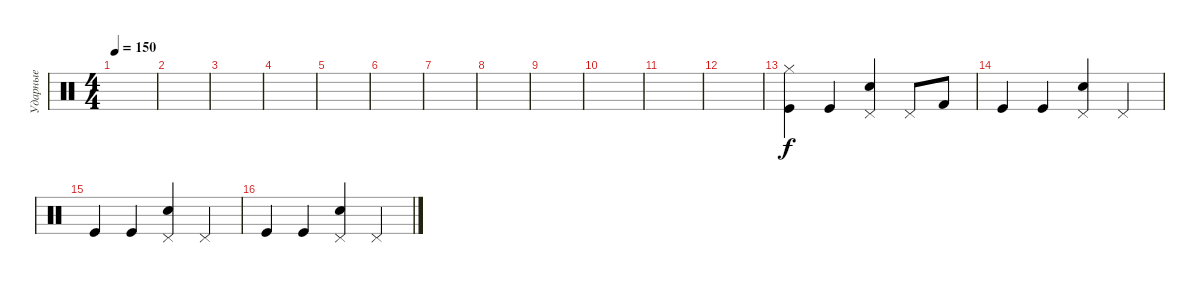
\track ("Ударные" "Ударные") {instrument percussion}
\staff {score}
\articulation defaults
\ts (4 4)
\tempo 150
\clef neutral
\ks c
|
|
|
|
|
|
|
|
|
|
|
|
("Kick (hit)" "Hi-Hat (closed)").4 "Kick (hit)".4 ("Electric Snare (hit)" "Pedal Hi-Hat (hit)").4 "Pedal Hi-Hat (hit)".8 "Kick (hit) 2".8 |
"Kick (hit)".4 "Kick (hit)".4 ("Electric Snare (hit)" "Pedal Hi-Hat (hit)").4 "Pedal Hi-Hat (hit)".4 |
"Kick (hit)".4 "Kick (hit)".4 ("Electric Snare (hit)" "Pedal Hi-Hat (hit)").4 "Pedal Hi-Hat (hit)".4 |
"Kick (hit)".4 "Kick (hit)".4 ("Electric Snare (hit)" "Pedal Hi-Hat (hit)").4 "Pedal Hi-Hat (hit)".4
